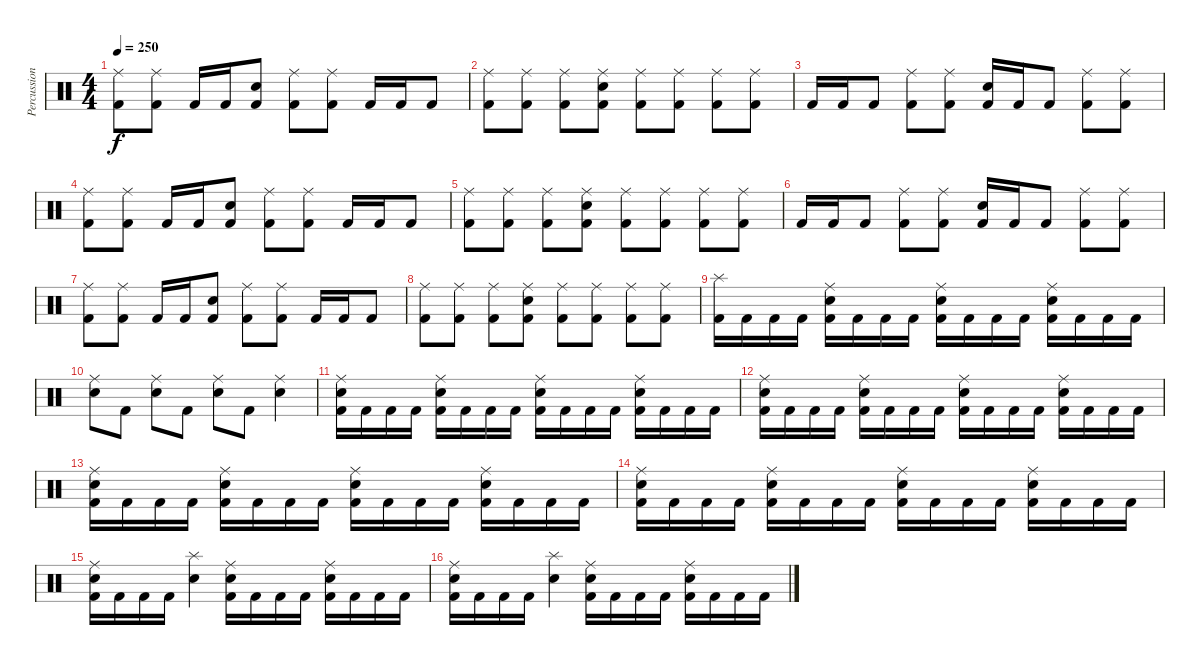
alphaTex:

\track ("Percussion" "Percussion") {instrument percussion}
\staff {score}
\articulation defaults
\ts (4 4)
\tempo 250
\clef neutral
\ks c
("Ride (middle)" "Kick (hit) 2").8{dy f} ("Ride (middle)" "Kick (hit) 2").8 "Kick (hit) 2".16 "Kick (hit) 2".16 ("Electric Snare (hit)" "Kick (hit) 2").8 ("Ride (middle)" "Kick (hit) 2").8 ("Ride (middle)" "Kick (hit) 2").8 "Kick (hit) 2".16 "Kick (hit) 2".16 "Kick (hit) 2".8 |
("Ride (middle)" "Kick (hit) 2").8 ("Ride (middle)" "Kick (hit) 2").8 ("Ride (middle)" "Kick (hit) 2").8 ("Ride (middle)" "Electric Snare (hit)" "Kick (hit) 2").8 ("Ride (middle)" "Kick (hit) 2").8 ("Ride (middle)" "Kick (hit) 2").8 ("Ride (middle)" "Kick (hit) 2").8 ("Ride (middle)" "Kick (hit) 2").8 |
"Kick (hit) 2".16 "Kick (hit) 2".16 "Kick (hit) 2".8 ("Ride (middle)" "Kick (hit) 2").8 ("Ride (middle)" "Kick (hit) 2").8 ("Electric Snare (hit)" "Kick (hit) 2").16 "Kick (hit) 2".16 "Kick (hit) 2".8 ("Ride (middle)" "Kick (hit) 2").8 ("Ride (middle)" "Kick (hit) 2").8 |
("Ride (middle)" "Kick (hit) 2").8 ("Ride (middle)" "Kick (hit) 2").8 "Kick (hit) 2".16 "Kick (hit) 2".16 ("Electric Snare (hit)" "Kick (hit) 2").8 ("Ride (middle)" "Kick (hit) 2").8 ("Ride (middle)" "Kick (hit) 2").8 "Kick (hit) 2".16 "Kick (hit) 2".16 "Kick (hit) 2".8 |
("Ride (middle)" "Kick (hit) 2").8 ("Ride (middle)" "Kick (hit) 2").8 ("Ride (middle)" "Kick (hit) 2").8 ("Ride (middle)" "Electric Snare (hit)" "Kick (hit) 2").8 ("Ride (middle)" "Kick (hit) 2").8 ("Ride (middle)" "Kick (hit) 2").8 ("Ride (middle)" "Kick (hit) 2").8 ("Ride (middle)" "Kick (hit) 2").8 |
"Kick (hit) 2".16 "Kick (hit) 2".16 "Kick (hit) 2".8 ("Ride (middle)" "Kick (hit) 2").8 ("Ride (middle)" "Kick (hit) 2").8 ("Electric Snare (hit)" "Kick (hit) 2").16 "Kick (hit) 2".16 "Kick (hit) 2".8 ("Ride (middle)" "Kick (hit) 2").8 ("Ride (middle)" "Kick (hit) 2").8 |
("Ride (middle)" "Kick (hit) 2").8 ("Ride (middle)" "Kick (hit) 2").8 "Kick (hit) 2".16 "Kick (hit) 2".16 ("Electric Snare (hit)" "Kick (hit) 2").8 ("Ride (middle)" "Kick (hit) 2").8 ("Ride (middle)" "Kick (hit) 2").8 "Kick (hit) 2".16 "Kick (hit) 2".16 "Kick (hit) 2".8 |
("Ride (middle)" "Kick (hit) 2").8 ("Ride (middle)" "Kick (hit) 2").8 ("Ride (middle)" "Kick (hit) 2").8 ("Ride (middle)" "Electric Snare (hit)" "Kick (hit) 2").8 ("Ride (middle)" "Kick (hit) 2").8 ("Ride (middle)" "Kick (hit) 2").8 ("Ride (middle)" "Kick (hit) 2").8 ("Ride (middle)" "Kick (hit) 2").8 |
("Splash (hit)" "Kick (hit) 2").16 "Kick (hit) 2".16 "Kick (hit) 2".16 "Kick (hit) 2".16 ("Ride (middle)" "Electric Snare (hit)" "Kick (hit) 2").16 "Kick (hit) 2".16 "Kick (hit) 2".16 "Kick (hit) 2".16 ("Ride (middle)" "Electric Snare (hit)" "Kick (hit) 2").16 "Kick (hit) 2".16 "Kick (hit) 2".16 "Kick (hit) 2".16 ("Ride (middle)" "Electric Snare (hit)" "Kick (hit) 2").16 "Kick (hit) 2".16 "Kick (hit) 2".16 "Kick (hit) 2".16 |
("Ride (middle)" "Electric Snare (hit)").8 "Kick (hit) 2".8 ("Ride (middle)" "Electric Snare (hit)").8 "Kick (hit) 2".8 ("Ride (middle)" "Electric Snare (hit)").8 "Kick (hit) 2".8 ("Ride (middle)" "Electric Snare (hit)").4 |
("Ride (middle)" "Electric Snare (hit)" "Kick (hit) 2").16 "Kick (hit) 2".16 "Kick (hit) 2".16 "Kick (hit) 2".16 ("Ride (middle)" "Electric Snare (hit)" "Kick (hit) 2").16 "Kick (hit) 2".16 "Kick (hit) 2".16 "Kick (hit) 2".16 ("Ride (middle)" "Electric Snare (hit)" "Kick (hit) 2").16 "Kick (hit) 2".16 "Kick (hit) 2".16 "Kick (hit) 2".16 ("Ride (middle)" "Electric Snare (hit)" "Kick (hit) 2").16 "Kick (hit) 2".16 "Kick (hit) 2".16 "Kick (hit) 2".16 |
("Ride (middle)" "Electric Snare (hit)" "Kick (hit) 2").16 "Kick (hit) 2".16 "Kick (hit) 2".16 "Kick (hit) 2".16 ("Ride (middle)" "Electric Snare (hit)" "Kick (hit) 2").16 "Kick (hit) 2".16 "Kick (hit) 2".16 "Kick (hit) 2".16 ("Ride (middle)" "Electric Snare (hit)" "Kick (hit) 2").16 "Kick (hit) 2".16 "Kick (hit) 2".16 "Kick (hit) 2".16 ("Ride (middle)" "Electric Snare (hit)" "Kick (hit) 2").16 "Kick (hit) 2".16 "Kick (hit) 2".16 "Kick (hit) 2".16 |
("Ride (middle)" "Electric Snare (hit)" "Kick (hit) 2").16 "Kick (hit) 2".16 "Kick (hit) 2".16 "Kick (hit) 2".16 ("Ride (middle)" "Electric Snare (hit)" "Kick (hit) 2").16 "Kick (hit) 2".16 "Kick (hit) 2".16 "Kick (hit) 2".16 ("Ride (middle)" "Electric Snare (hit)" "Kick (hit) 2").16 "Kick (hit) 2".16 "Kick (hit) 2".16 "Kick (hit) 2".16 ("Ride (middle)" "Electric Snare (hit)" "Kick (hit) 2").16 "Kick (hit) 2".16 "Kick (hit) 2".16 "Kick (hit) 2".16 |
("Ride (middle)" "Electric Snare (hit)" "Kick (hit) 2").16 "Kick (hit) 2".16 "Kick (hit) 2".16 "Kick (hit) 2".16 ("Ride (middle)" "Electric Snare (hit)" "Kick (hit) 2").16 "Kick (hit) 2".16 "Kick (hit) 2".16 "Kick (hit) 2".16 ("Ride (middle)" "Electric Snare (hit)" "Kick (hit) 2").16 "Kick (hit) 2".16 "Kick (hit) 2".16 "Kick (hit) 2".16 ("Ride (middle)" "Electric Snare (hit)" "Kick (hit) 2").16 "Kick (hit) 2".16 "Kick (hit) 2".16 "Kick (hit) 2".16 |
("Ride (middle)" "Electric Snare (hit)" "Kick (hit) 2").16 "Kick (hit) 2".16 "Kick (hit) 2".16 "Kick (hit) 2".16 ("Splash (hit)" "Electric Snare (hit)").4 ("Ride (middle)" "Electric Snare (hit)" "Kick (hit) 2").16 "Kick (hit) 2".16 "Kick (hit) 2".16 "Kick (hit) 2".16 ("Ride (middle)" "Electric Snare (hit)" "Kick (hit) 2").16 "Kick (hit) 2".16 "Kick (hit) 2".16 "Kick (hit) 2".16 |
("Ride (middle)" "Electric Snare (hit)" "Kick (hit) 2").16 "Kick (hit) 2".16 "Kick (hit) 2".16 "Kick (hit) 2".16 ("Splash (hit)" "Electric Snare (hit)").4 ("Ride (middle)" "Electric Snare (hit)" "Kick (hit) 2").16 "Kick (hit) 2".16 "Kick (hit) 2".16 "Kick (hit) 2".16 ("Ride (middle)" "Electric Snare (hit)" "Kick (hit) 2").16 "Kick (hit) 2".16 "Kick (hit) 2".16 "Kick (hit) 2".16
